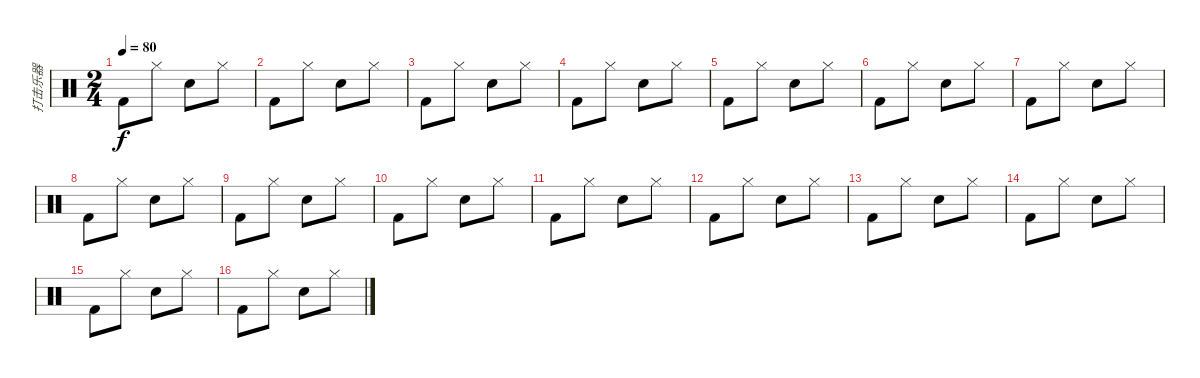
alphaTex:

\track ("打击乐器" "打击乐器") {instrument percussion}
\staff {score}
\articulation defaults
\ts (2 4)
\tempo 80
\clef neutral
\ks c "Kick (hit) 2".8{dy f} "Hi-Hat (closed)".8 "Snare (hit) 2".8 "Hi-Hat (closed)".8
|
"Kick (hit) 2".8 "Hi-Hat (closed)".8 "Snare (hit) 2".8 "Hi-Hat (closed)".8 |
"Kick (hit) 2".8 "Hi-Hat (closed)".8 "Snare (hit) 2".8 "Hi-Hat (closed)".8 |
"Kick (hit) 2".8 "Hi-Hat (closed)".8 "Snare (hit) 2".8 "Hi-Hat (closed)".8 |
"Kick (hit) 2".8 "Hi-Hat (closed)".8 "Snare (hit) 2".8 "Hi-Hat (closed)".8 |
"Kick (hit) 2".8 "Hi-Hat (closed)".8 "Snare (hit) 2".8 "Hi-Hat (closed)".8 |
"Kick (hit) 2".8 "Hi-Hat (closed)".8 "Snare (hit) 2".8 "Hi-Hat (closed)".8 |
"Kick (hit) 2".8 "Hi-Hat (closed)".8 "Snare (hit) 2".8 "Hi-Hat (closed)".8 |
"Kick (hit) 2".8 "Hi-Hat (closed)".8 "Snare (hit) 2".8 "Hi-Hat (closed)".8 |
"Kick (hit) 2".8 "Hi-Hat (closed)".8 "Snare (hit) 2".8 "Hi-Hat (closed)".8 |
"Kick (hit) 2".8 "Hi-Hat (closed)".8 "Snare (hit) 2".8 "Hi-Hat (closed)".8 |
"Kick (hit) 2".8 "Hi-Hat (closed)".8 "Snare (hit) 2".8 "Hi-Hat (closed)".8 |
"Kick (hit) 2".8 "Hi-Hat (closed)".8 "Snare (hit) 2".8 "Hi-Hat (closed)".8 |
"Kick (hit) 2".8 "Hi-Hat (closed)".8 "Snare (hit) 2".8 "Hi-Hat (closed)".8 |
"Kick (hit) 2".8 "Hi-Hat (closed)".8 "Snare (hit) 2".8 "Hi-Hat (closed)".8 |
"Kick (hit) 2".8 "Hi-Hat (closed)".8 "Snare (hit) 2".8 "Hi-Hat (closed)".8
